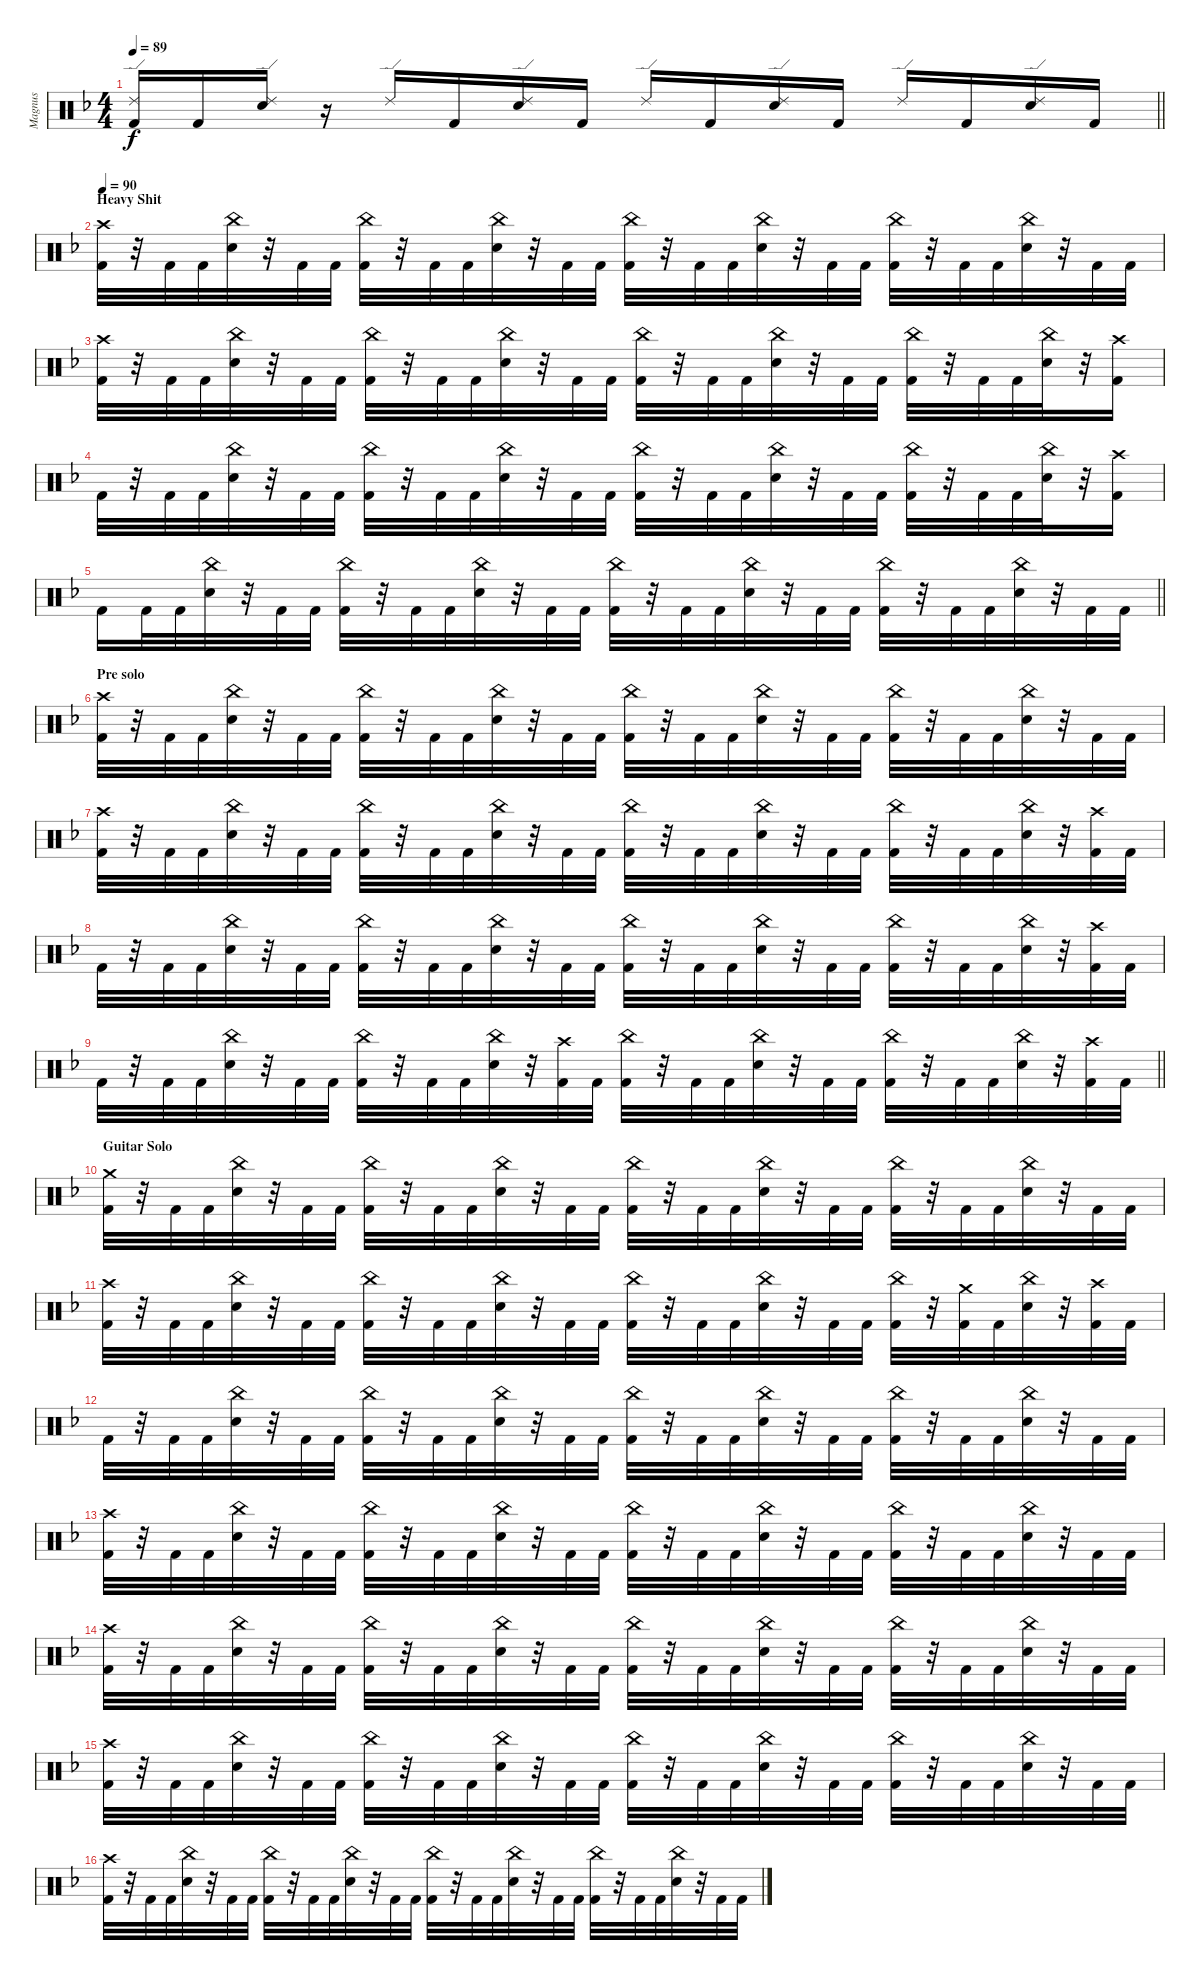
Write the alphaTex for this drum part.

\track ("Magnus" "Magnus") {instrument percussion}
\staff {score}
\articulation defaults
\ts (4 4)
\tempo 89
\clef neutral
\barLineRight lightlight
\ks dminor
("Ride (edge) 2" "Kick (hit) 2").16{dy f} "Kick (hit) 2".16 ("Ride (edge) 2" "Snare (hit) 2").16 r.16 "Ride (edge) 2".16 "Kick (hit) 2".16 ("Ride (edge) 2" "Snare (hit) 2").16 "Kick (hit) 2".16 "Ride (edge) 2".16 "Kick (hit) 2".16 ("Ride (edge) 2" "Snare (hit) 2").16 "Kick (hit) 2".16 "Ride (edge) 2".16 "Kick (hit) 2".16 ("Ride (edge) 2" "Snare (hit) 2").16 "Kick (hit) 2".16 |
\section ("" "Heavy Shit")
\tempo 90
("Crash high (hit)" "Kick (hit) 2").32 r.32 "Kick (hit) 2".32 "Kick (hit) 2".32 ("China (hit)" "Snare (hit) 2").32 r.32 "Kick (hit) 2".32 "Kick (hit) 2".32 ("China (hit)" "Kick (hit) 2").32 r.32 "Kick (hit) 2".32 "Kick (hit) 2".32 ("China (hit)" "Snare (hit) 2").32 r.32 "Kick (hit) 2".32 "Kick (hit) 2".32 ("China (hit)" "Kick (hit) 2").32 r.32 "Kick (hit) 2".32 "Kick (hit) 2".32 ("China (hit)" "Snare (hit) 2").32 r.32 "Kick (hit) 2".32 "Kick (hit) 2".32 ("China (hit)" "Kick (hit) 2").32 r.32 "Kick (hit) 2".32 "Kick (hit) 2".32 ("China (hit)" "Snare (hit) 2").32 r.32 "Kick (hit) 2".32 "Kick (hit) 2".32 |
("Crash high (hit)" "Kick (hit) 2").32 r.32 "Kick (hit) 2".32 "Kick (hit) 2".32 ("China (hit)" "Snare (hit) 2").32 r.32 "Kick (hit) 2".32 "Kick (hit) 2".32 ("China (hit)" "Kick (hit) 2").32 r.32 "Kick (hit) 2".32 "Kick (hit) 2".32 ("China (hit)" "Snare (hit) 2").32 r.32 "Kick (hit) 2".32 "Kick (hit) 2".32 ("China (hit)" "Kick (hit) 2").32 r.32 "Kick (hit) 2".32 "Kick (hit) 2".32 ("China (hit)" "Snare (hit) 2").32 r.32 "Kick (hit) 2".32 "Kick (hit) 2".32 ("China (hit)" "Kick (hit) 2").32 r.32 "Kick (hit) 2".32 "Kick (hit) 2".32 ("China (hit)" "Snare (hit) 2").32 r.32 ("Crash high (hit)" "Kick (hit) 2").16 |
"Kick (hit) 2".32 r.32 "Kick (hit) 2".32 "Kick (hit) 2".32 ("China (hit)" "Snare (hit) 2").32 r.32 "Kick (hit) 2".32 "Kick (hit) 2".32 ("China (hit)" "Kick (hit) 2").32 r.32 "Kick (hit) 2".32 "Kick (hit) 2".32 ("China (hit)" "Snare (hit) 2").32 r.32 "Kick (hit) 2".32 "Kick (hit) 2".32 ("China (hit)" "Kick (hit) 2").32 r.32 "Kick (hit) 2".32 "Kick (hit) 2".32 ("China (hit)" "Snare (hit) 2").32 r.32 "Kick (hit) 2".32 "Kick (hit) 2".32 ("China (hit)" "Kick (hit) 2").32 r.32 "Kick (hit) 2".32 "Kick (hit) 2".32 ("China (hit)" "Snare (hit) 2").32 r.32 ("Crash high (hit)" "Kick (hit) 2").16 |
\barLineRight lightlight "Kick (hit) 2".16 "Kick (hit) 2".32 "Kick (hit) 2".32
("China (hit)" "Snare (hit) 2").32 r.32 "Kick (hit) 2".32 "Kick (hit) 2".32 ("China (hit)" "Kick (hit) 2").32 r.32 "Kick (hit) 2".32 "Kick (hit) 2".32 ("China (hit)" "Snare (hit) 2").32 r.32 "Kick (hit) 2".32 "Kick (hit) 2".32 ("China (hit)" "Kick (hit) 2").32 r.32 "Kick (hit) 2".32 "Kick (hit) 2".32 ("China (hit)" "Snare (hit) 2").32 r.32 "Kick (hit) 2".32 "Kick (hit) 2".32 ("China (hit)" "Kick (hit) 2").32 r.32 "Kick (hit) 2".32 "Kick (hit) 2".32 ("China (hit)" "Snare (hit) 2").32 r.32 "Kick (hit) 2".32 "Kick (hit) 2".32 |
\section ("" "Pre solo")
("Crash high (hit)" "Kick (hit) 2").32 r.32 "Kick (hit) 2".32 "Kick (hit) 2".32 ("China (hit)" "Snare (hit) 2").32 r.32 "Kick (hit) 2".32 "Kick (hit) 2".32 ("China (hit)" "Kick (hit) 2").32 r.32 "Kick (hit) 2".32 "Kick (hit) 2".32 ("China (hit)" "Snare (hit) 2").32 r.32 "Kick (hit) 2".32 "Kick (hit) 2".32 ("China (hit)" "Kick (hit) 2").32 r.32 "Kick (hit) 2".32 "Kick (hit) 2".32 ("China (hit)" "Snare (hit) 2").32 r.32 "Kick (hit) 2".32 "Kick (hit) 2".32 ("China (hit)" "Kick (hit) 2").32 r.32 "Kick (hit) 2".32 "Kick (hit) 2".32 ("China (hit)" "Snare (hit) 2").32 r.32 "Kick (hit) 2".32 "Kick (hit) 2".32 |
("Crash high (hit)" "Kick (hit) 2").32 r.32 "Kick (hit) 2".32 "Kick (hit) 2".32 ("China (hit)" "Snare (hit) 2").32 r.32 "Kick (hit) 2".32 "Kick (hit) 2".32 ("China (hit)" "Kick (hit) 2").32 r.32 "Kick (hit) 2".32 "Kick (hit) 2".32 ("China (hit)" "Snare (hit) 2").32 r.32 "Kick (hit) 2".32 "Kick (hit) 2".32 ("China (hit)" "Kick (hit) 2").32 r.32 "Kick (hit) 2".32 "Kick (hit) 2".32 ("China (hit)" "Snare (hit) 2").32 r.32 "Kick (hit) 2".32 "Kick (hit) 2".32 ("China (hit)" "Kick (hit) 2").32 r.32 "Kick (hit) 2".32 "Kick (hit) 2".32 ("China (hit)" "Snare (hit) 2").32 r.32 ("Crash high (hit)" "Kick (hit) 2").32 "Kick (hit) 2".32 |
"Kick (hit) 2".32 r.32 "Kick (hit) 2".32 "Kick (hit) 2".32 ("China (hit)" "Snare (hit) 2").32 r.32 "Kick (hit) 2".32 "Kick (hit) 2".32 ("China (hit)" "Kick (hit) 2").32 r.32 "Kick (hit) 2".32 "Kick (hit) 2".32 ("China (hit)" "Snare (hit) 2").32 r.32 "Kick (hit) 2".32 "Kick (hit) 2".32 ("China (hit)" "Kick (hit) 2").32 r.32 "Kick (hit) 2".32 "Kick (hit) 2".32 ("China (hit)" "Snare (hit) 2").32 r.32 "Kick (hit) 2".32 "Kick (hit) 2".32 ("China (hit)" "Kick (hit) 2").32 r.32 "Kick (hit) 2".32 "Kick (hit) 2".32 ("China (hit)" "Snare (hit) 2").32 r.32 ("Crash high (hit)" "Kick (hit) 2").32 "Kick (hit) 2".32 |
\barLineRight lightlight "Kick (hit) 2".32
r.32 "Kick (hit) 2".32 "Kick (hit) 2".32 ("China (hit)" "Snare (hit) 2").32 r.32 "Kick (hit) 2".32 "Kick (hit) 2".32 ("China (hit)" "Kick (hit) 2").32 r.32 "Kick (hit) 2".32 "Kick (hit) 2".32 ("China (hit)" "Snare (hit) 2").32 r.32 ("Crash high (hit)" "Kick (hit) 2").32 "Kick (hit) 2".32 ("China (hit)" "Kick (hit) 2").32 r.32 "Kick (hit) 2".32 "Kick (hit) 2".32 ("China (hit)" "Snare (hit) 2").32 r.32 "Kick (hit) 2".32 "Kick (hit) 2".32 ("China (hit)" "Kick (hit) 2").32 r.32 "Kick (hit) 2".32 "Kick (hit) 2".32 ("China (hit)" "Snare (hit) 2").32 r.32 ("Crash high (hit)" "Kick (hit) 2").32 "Kick (hit) 2".32 |
\section ("" "Guitar Solo")
("Crash medium (hit)" "Kick (hit) 2").32 r.32 "Kick (hit) 2".32 "Kick (hit) 2".32 ("China (hit)" "Snare (hit) 2").32 r.32 "Kick (hit) 2".32 "Kick (hit) 2".32 ("China (hit)" "Kick (hit) 2").32 r.32 "Kick (hit) 2".32 "Kick (hit) 2".32 ("China (hit)" "Snare (hit) 2").32 r.32 "Kick (hit) 2".32 "Kick (hit) 2".32 ("China (hit)" "Kick (hit) 2").32 r.32 "Kick (hit) 2".32 "Kick (hit) 2".32 ("China (hit)" "Snare (hit) 2").32 r.32 "Kick (hit) 2".32 "Kick (hit) 2".32 ("China (hit)" "Kick (hit) 2").32 r.32 "Kick (hit) 2".32 "Kick (hit) 2".32 ("China (hit)" "Snare (hit) 2").32 r.32 "Kick (hit) 2".32 "Kick (hit) 2".32 |
("Crash high (hit)" "Kick (hit) 2").32 r.32 "Kick (hit) 2".32 "Kick (hit) 2".32 ("China (hit)" "Snare (hit) 2").32 r.32 "Kick (hit) 2".32 "Kick (hit) 2".32 ("China (hit)" "Kick (hit) 2").32 r.32 "Kick (hit) 2".32 "Kick (hit) 2".32 ("China (hit)" "Snare (hit) 2").32 r.32 "Kick (hit) 2".32 "Kick (hit) 2".32 ("China (hit)" "Kick (hit) 2").32 r.32 "Kick (hit) 2".32 "Kick (hit) 2".32 ("China (hit)" "Snare (hit) 2").32 r.32 "Kick (hit) 2".32 "Kick (hit) 2".32 ("China (hit)" "Kick (hit) 2").32 r.32 ("Crash medium (hit)" "Kick (hit) 2").32 "Kick (hit) 2".32 ("China (hit)" "Snare (hit) 2").32 r.32 ("Crash high (hit)" "Kick (hit) 2").32 "Kick (hit) 2".32 |
"Kick (hit) 2".32 r.32 "Kick (hit) 2".32 "Kick (hit) 2".32 ("China (hit)" "Snare (hit) 2").32 r.32 "Kick (hit) 2".32 "Kick (hit) 2".32 ("China (hit)" "Kick (hit) 2").32 r.32 "Kick (hit) 2".32 "Kick (hit) 2".32 ("China (hit)" "Snare (hit) 2").32 r.32 "Kick (hit) 2".32 "Kick (hit) 2".32 ("China (hit)" "Kick (hit) 2").32 r.32 "Kick (hit) 2".32 "Kick (hit) 2".32 ("China (hit)" "Snare (hit) 2").32 r.32 "Kick (hit) 2".32 "Kick (hit) 2".32 ("China (hit)" "Kick (hit) 2").32 r.32 "Kick (hit) 2".32 "Kick (hit) 2".32 ("China (hit)" "Snare (hit) 2").32 r.32 "Kick (hit) 2".32 "Kick (hit) 2".32 |
("Crash high (hit)" "Kick (hit) 2").32 r.32 "Kick (hit) 2".32 "Kick (hit) 2".32 ("China (hit)" "Snare (hit) 2").32 r.32 "Kick (hit) 2".32 "Kick (hit) 2".32 ("China (hit)" "Kick (hit) 2").32 r.32 "Kick (hit) 2".32 "Kick (hit) 2".32 ("China (hit)" "Snare (hit) 2").32 r.32 "Kick (hit) 2".32 "Kick (hit) 2".32 ("China (hit)" "Kick (hit) 2").32 r.32 "Kick (hit) 2".32 "Kick (hit) 2".32 ("China (hit)" "Snare (hit) 2").32 r.32 "Kick (hit) 2".32 "Kick (hit) 2".32 ("China (hit)" "Kick (hit) 2").32 r.32 "Kick (hit) 2".32 "Kick (hit) 2".32 ("China (hit)" "Snare (hit) 2").32 r.32 "Kick (hit) 2".32 "Kick (hit) 2".32 |
("Crash high (hit)" "Kick (hit) 2").32 r.32 "Kick (hit) 2".32 "Kick (hit) 2".32 ("China (hit)" "Snare (hit) 2").32 r.32 "Kick (hit) 2".32 "Kick (hit) 2".32 ("China (hit)" "Kick (hit) 2").32 r.32 "Kick (hit) 2".32 "Kick (hit) 2".32 ("China (hit)" "Snare (hit) 2").32 r.32 "Kick (hit) 2".32 "Kick (hit) 2".32 ("China (hit)" "Kick (hit) 2").32 r.32 "Kick (hit) 2".32 "Kick (hit) 2".32 ("China (hit)" "Snare (hit) 2").32 r.32 "Kick (hit) 2".32 "Kick (hit) 2".32 ("China (hit)" "Kick (hit) 2").32 r.32 "Kick (hit) 2".32 "Kick (hit) 2".32 ("China (hit)" "Snare (hit) 2").32 r.32 "Kick (hit) 2".32 "Kick (hit) 2".32 |
("Crash high (hit)" "Kick (hit) 2").32 r.32 "Kick (hit) 2".32 "Kick (hit) 2".32 ("China (hit)" "Snare (hit) 2").32 r.32 "Kick (hit) 2".32 "Kick (hit) 2".32 ("China (hit)" "Kick (hit) 2").32 r.32 "Kick (hit) 2".32 "Kick (hit) 2".32 ("China (hit)" "Snare (hit) 2").32 r.32 "Kick (hit) 2".32 "Kick (hit) 2".32 ("China (hit)" "Kick (hit) 2").32 r.32 "Kick (hit) 2".32 "Kick (hit) 2".32 ("China (hit)" "Snare (hit) 2").32 r.32 "Kick (hit) 2".32 "Kick (hit) 2".32 ("China (hit)" "Kick (hit) 2").32 r.32 "Kick (hit) 2".32 "Kick (hit) 2".32 ("China (hit)" "Snare (hit) 2").32 r.32 "Kick (hit) 2".32 "Kick (hit) 2".32 |
("Crash high (hit)" "Kick (hit) 2").32 r.32 "Kick (hit) 2".32 "Kick (hit) 2".32 ("China (hit)" "Snare (hit) 2").32 r.32 "Kick (hit) 2".32 "Kick (hit) 2".32 ("China (hit)" "Kick (hit) 2").32 r.32 "Kick (hit) 2".32 "Kick (hit) 2".32 ("China (hit)" "Snare (hit) 2").32 r.32 "Kick (hit) 2".32 "Kick (hit) 2".32 ("China (hit)" "Kick (hit) 2").32 r.32 "Kick (hit) 2".32 "Kick (hit) 2".32 ("China (hit)" "Snare (hit) 2").32 r.32 "Kick (hit) 2".32 "Kick (hit) 2".32 ("China (hit)" "Kick (hit) 2").32 r.32 "Kick (hit) 2".32 "Kick (hit) 2".32 ("China (hit)" "Snare (hit) 2").32 r.32 "Kick (hit) 2".32 "Kick (hit) 2".32
